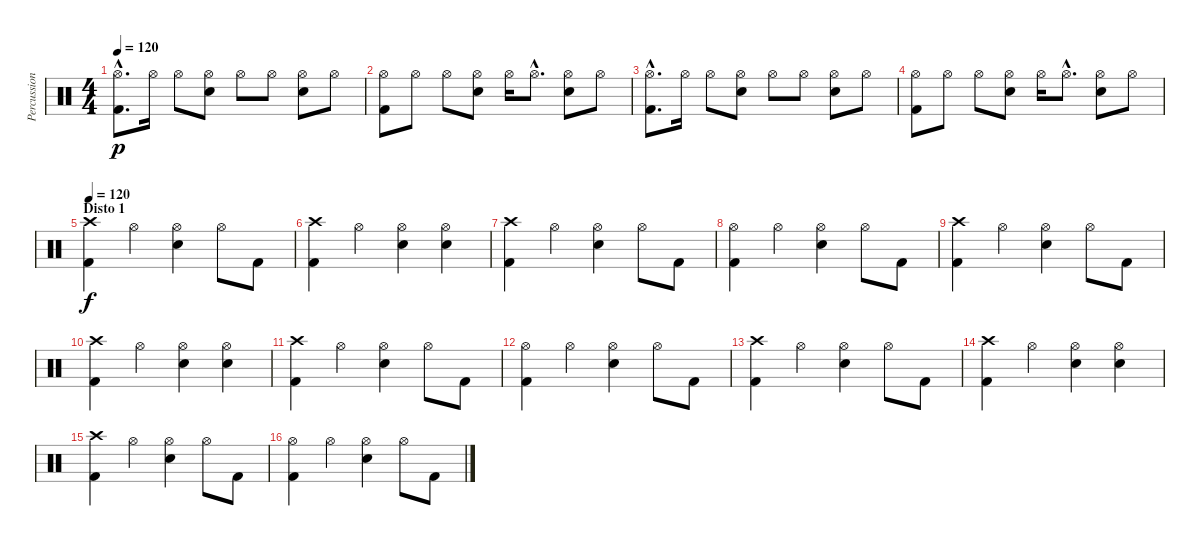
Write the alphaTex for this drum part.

\track ("Percussion" "Percussion") {instrument percussion}
\staff {score}
\articulation defaults
\ts (4 4)
\tempo 120
\clef neutral
\ks c
("Hi-Hat (open)"{hac} "Kick (hit) 2"{hac}).8{d dy p} "Hi-Hat (open)".16 "Hi-Hat (open)".8 ("Hi-Hat (open)" "Electric Snare (hit)").8 "Hi-Hat (open)".8 "Hi-Hat (open)".8 ("Hi-Hat (open)" "Electric Snare (hit)").8 "Hi-Hat (open)".8 |
("Hi-Hat (open)" "Kick (hit) 2").8 "Hi-Hat (open)".8 "Hi-Hat (open)".8 ("Hi-Hat (open)" "Electric Snare (hit)").8 "Hi-Hat (open)".16 "Hi-Hat (open)"{hac}.8{d} ("Hi-Hat (open)" "Electric Snare (hit)").8 "Hi-Hat (open)".8 |
("Hi-Hat (open)"{hac} "Kick (hit) 2"{hac}).8{d} "Hi-Hat (open)".16 "Hi-Hat (open)".8 ("Hi-Hat (open)" "Electric Snare (hit)").8 "Hi-Hat (open)".8 "Hi-Hat (open)".8 ("Hi-Hat (open)" "Electric Snare (hit)").8 "Hi-Hat (open)".8 |
("Hi-Hat (open)" "Kick (hit) 2").8 "Hi-Hat (open)".8 "Hi-Hat (open)".8 ("Hi-Hat (open)" "Electric Snare (hit)").8 "Hi-Hat (open)".16 "Hi-Hat (open)"{hac}.8{d} ("Hi-Hat (open)" "Electric Snare (hit)").8 "Hi-Hat (open)".8 |
\section ("" "Disto 1")
\tempo 120
("Crash high (hit)" "Kick (hit) 2").4{dy f} "Hi-Hat (open)".4 ("Hi-Hat (open)" "Electric Snare (hit)").4 "Hi-Hat (open)".8 "Kick (hit) 2".8 |
("Crash high (hit)" "Kick (hit) 2").4 "Hi-Hat (open)".4 ("Hi-Hat (open)" "Electric Snare (hit)").4 ("Hi-Hat (open)" "Electric Snare (hit)").4 |
("Crash high (hit)" "Kick (hit) 2").4 "Hi-Hat (open)".4 ("Hi-Hat (open)" "Electric Snare (hit)").4 "Hi-Hat (open)".8 "Kick (hit) 2".8 |
("Hi-Hat (open)" "Kick (hit) 2").4 "Hi-Hat (open)".4 ("Hi-Hat (open)" "Electric Snare (hit)").4 "Hi-Hat (open)".8 "Kick (hit) 2".8 |
("Crash high (hit)" "Kick (hit) 2").4 "Hi-Hat (open)".4 ("Hi-Hat (open)" "Electric Snare (hit)").4 "Hi-Hat (open)".8 "Kick (hit) 2".8 |
("Crash high (hit)" "Kick (hit) 2").4 "Hi-Hat (open)".4 ("Hi-Hat (open)" "Electric Snare (hit)").4 ("Hi-Hat (open)" "Electric Snare (hit)").4 |
("Crash high (hit)" "Kick (hit) 2").4 "Hi-Hat (open)".4 ("Hi-Hat (open)" "Electric Snare (hit)").4 "Hi-Hat (open)".8 "Kick (hit) 2".8 |
("Hi-Hat (open)" "Kick (hit) 2").4 "Hi-Hat (open)".4 ("Hi-Hat (open)" "Electric Snare (hit)").4 "Hi-Hat (open)".8 "Kick (hit) 2".8 |
("Crash high (hit)" "Kick (hit) 2").4 "Hi-Hat (open)".4 ("Hi-Hat (open)" "Electric Snare (hit)").4 "Hi-Hat (open)".8 "Kick (hit) 2".8 |
("Crash high (hit)" "Kick (hit) 2").4 "Hi-Hat (open)".4 ("Hi-Hat (open)" "Electric Snare (hit)").4 ("Hi-Hat (open)" "Electric Snare (hit)").4 |
("Crash high (hit)" "Kick (hit) 2").4 "Hi-Hat (open)".4 ("Hi-Hat (open)" "Electric Snare (hit)").4 "Hi-Hat (open)".8 "Kick (hit) 2".8 |
("Hi-Hat (open)" "Kick (hit) 2").4 "Hi-Hat (open)".4 ("Hi-Hat (open)" "Electric Snare (hit)").4 "Hi-Hat (open)".8 "Kick (hit) 2".8
